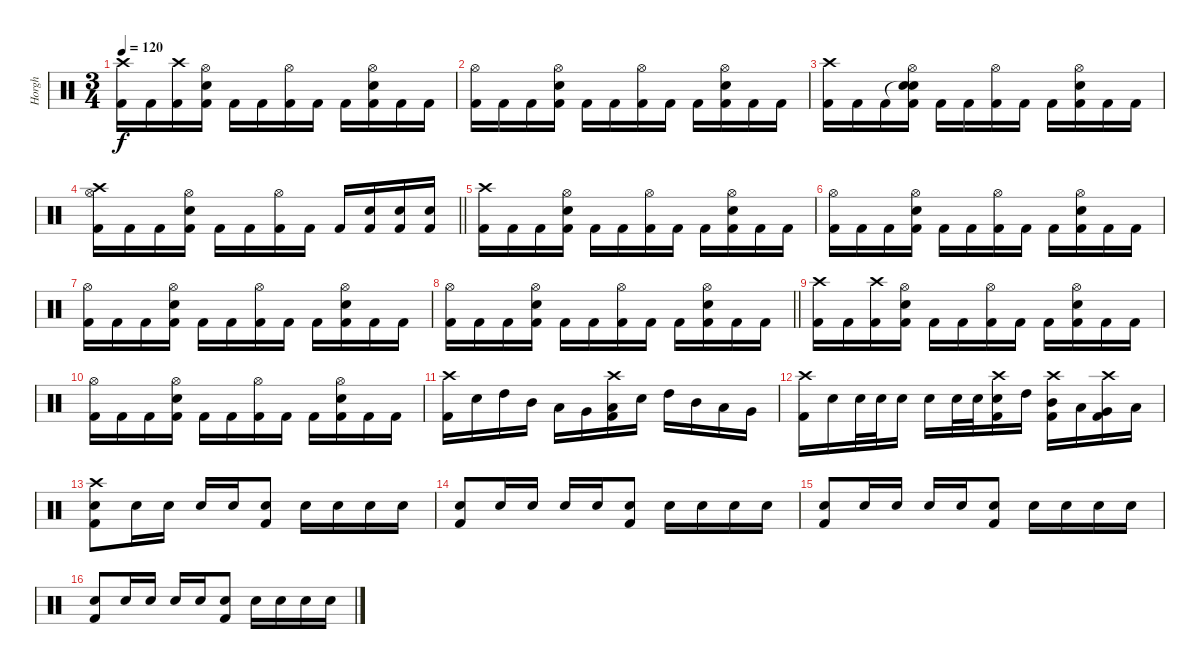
\track ("Horgh" "Horgh") {instrument percussion}
\staff {score}
\articulation defaults
\ts (3 4)
\tempo 120
\clef neutral
\ks c
("Crash high (hit)" "Kick (hit) 2").16{dy f} "Kick (hit) 2".16 ("Crash high (hit)" "Kick (hit) 2").16 ("Snare (hit) 2" "Hi-Hat (open)" "Kick (hit) 2").16 "Kick (hit) 2".16 "Kick (hit) 2".16 ("Hi-Hat (open)" "Kick (hit) 2").16 "Kick (hit) 2".16 "Kick (hit) 2".16 ("Snare (hit) 2" "Hi-Hat (open)" "Kick (hit) 2").16 "Kick (hit) 2".16 "Kick (hit) 2".16 |
("Hi-Hat (open)" "Kick (hit) 2").16 "Kick (hit) 2".16 "Kick (hit) 2".16 ("Snare (hit) 2" "Hi-Hat (open)" "Kick (hit) 2").16 "Kick (hit) 2".16 "Kick (hit) 2".16 ("Hi-Hat (open)" "Kick (hit) 2").16 "Kick (hit) 2".16 "Kick (hit) 2".16 ("Snare (hit) 2" "Hi-Hat (open)" "Kick (hit) 2").16 "Kick (hit) 2".16 "Kick (hit) 2".16 |
("Crash high (hit)" "Kick (hit) 2").16 "Kick (hit) 2".16 "Kick (hit) 2".16 ("Snare (hit)"{t} "Snare (hit) 2" "Hi-Hat (open)" "Kick (hit) 2").16 "Kick (hit) 2".16 "Kick (hit) 2".16 ("Hi-Hat (open)" "Kick (hit) 2").16 "Kick (hit) 2".16 "Kick (hit) 2".16 ("Snare (hit) 2" "Hi-Hat (open)" "Kick (hit) 2").16 "Kick (hit) 2".16 "Kick (hit) 2".16 |
\barLineRight lightlight
("Crash high (hit)" "Hi-Hat (open)" "Kick (hit) 2").16 "Kick (hit) 2".16 "Kick (hit) 2".16 ("Snare (hit) 2" "Hi-Hat (open)" "Kick (hit) 2").16 "Kick (hit) 2".16 "Kick (hit) 2".16 ("Hi-Hat (open)" "Kick (hit) 2").16 "Kick (hit) 2".16 "Kick (hit) 2".16 ("Snare (hit) 2" "Kick (hit) 2").16 ("Snare (hit) 2" "Kick (hit) 2").16 ("Snare (hit) 2" "Kick (hit) 2").16 |
("Crash high (hit)" "Kick (hit) 2").16 "Kick (hit) 2".16 "Kick (hit) 2".16 ("Snare (hit) 2" "Hi-Hat (open)" "Kick (hit) 2").16 "Kick (hit) 2".16 "Kick (hit) 2".16 ("Hi-Hat (open)" "Kick (hit) 2").16 "Kick (hit) 2".16 "Kick (hit) 2".16 ("Snare (hit) 2" "Hi-Hat (open)" "Kick (hit) 2").16 "Kick (hit) 2".16 "Kick (hit) 2".16 |
("Hi-Hat (open)" "Kick (hit) 2").16 "Kick (hit) 2".16 "Kick (hit) 2".16 ("Snare (hit) 2" "Hi-Hat (open)" "Kick (hit) 2").16 "Kick (hit) 2".16 "Kick (hit) 2".16 ("Hi-Hat (open)" "Kick (hit) 2").16 "Kick (hit) 2".16 "Kick (hit) 2".16 ("Snare (hit) 2" "Hi-Hat (open)" "Kick (hit) 2").16 "Kick (hit) 2".16 "Kick (hit) 2".16 |
("Hi-Hat (open)" "Kick (hit) 2").16 "Kick (hit) 2".16 "Kick (hit) 2".16 ("Snare (hit) 2" "Hi-Hat (open)" "Kick (hit) 2").16 "Kick (hit) 2".16 "Kick (hit) 2".16 ("Hi-Hat (open)" "Kick (hit) 2").16 "Kick (hit) 2".16 "Kick (hit) 2".16 ("Snare (hit) 2" "Hi-Hat (open)" "Kick (hit) 2").16 "Kick (hit) 2".16 "Kick (hit) 2".16 |
\barLineRight lightlight
("Hi-Hat (open)" "Kick (hit) 2").16 "Kick (hit) 2".16 "Kick (hit) 2".16 ("Snare (hit) 2" "Hi-Hat (open)" "Kick (hit) 2").16 "Kick (hit) 2".16 "Kick (hit) 2".16 ("Hi-Hat (open)" "Kick (hit) 2").16 "Kick (hit) 2".16 "Kick (hit) 2".16 ("Snare (hit) 2" "Hi-Hat (open)" "Kick (hit) 2").16 "Kick (hit) 2".16 "Kick (hit) 2".16 |
("Crash high (hit)" "Kick (hit) 2").16 "Kick (hit) 2".16 ("Crash high (hit)" "Kick (hit) 2").16 ("Snare (hit) 2" "Hi-Hat (open)" "Kick (hit) 2").16 "Kick (hit) 2".16 "Kick (hit) 2".16 ("Hi-Hat (open)" "Kick (hit) 2").16 "Kick (hit) 2".16 "Kick (hit) 2".16 ("Snare (hit) 2" "Hi-Hat (open)" "Kick (hit) 2").16 "Kick (hit) 2".16 "Kick (hit) 2".16 |
("Hi-Hat (open)" "Kick (hit) 2").16 "Kick (hit) 2".16 "Kick (hit) 2".16 ("Snare (hit) 2" "Hi-Hat (open)" "Kick (hit) 2").16 "Kick (hit) 2".16 "Kick (hit) 2".16 ("Hi-Hat (open)" "Kick (hit) 2").16 "Kick (hit) 2".16 "Kick (hit) 2".16 ("Snare (hit) 2" "Hi-Hat (open)" "Kick (hit) 2").16 "Kick (hit) 2".16 "Kick (hit) 2".16 |
("Crash high (hit)" "Kick (hit) 2").16 "Snare (hit) 2".16 "High Tom (hit)".16 "Mid Tom (hit)".16 "Low Tom (hit)".16 "Very Low Tom (hit)".16 ("Crash high (hit)" "Low Floor Tom (hit)" "Kick (hit) 2").16 "Snare (hit) 2".16 "High Tom (hit)".16 "Mid Tom (hit)".16 "Low Tom (hit)".16 "Very Low Tom (hit)".16 |
("Crash high (hit)" "Kick (hit) 2").16 "Snare (hit) 2".16 "Snare (hit) 2".32 "Snare (hit) 2".32 "Snare (hit) 2".16 "Snare (hit) 2".16 "Snare (hit) 2".32 "Snare (hit) 2".32 ("Crash high (hit)" "Snare (hit) 2" "Kick (hit) 2").16 "High Tom (hit)".16 ("Crash high (hit)" "Mid Tom (hit)" "Kick (hit) 2").16 "Low Tom (hit)".16 ("Crash high (hit)" "Very Low Tom (hit)" "Kick (hit) 2").16 "Low Floor Tom (hit)".16 |
("Crash high (hit)" "Snare (hit) 2" "Kick (hit) 2").8 "Snare (hit) 2".16 "Snare (hit) 2".16 "Snare (hit) 2".16 "Snare (hit) 2".16 ("Snare (hit) 2" "Kick (hit) 2").8 "Snare (hit) 2".16 "Snare (hit) 2".16 "Snare (hit) 2".16 "Snare (hit) 2".16 |
("Snare (hit) 2" "Kick (hit) 2").8 "Snare (hit) 2".16 "Snare (hit) 2".16 "Snare (hit) 2".16 "Snare (hit) 2".16 ("Snare (hit) 2" "Kick (hit) 2").8 "Snare (hit) 2".16 "Snare (hit) 2".16 "Snare (hit) 2".16 "Snare (hit) 2".16 |
("Snare (hit) 2" "Kick (hit) 2").8 "Snare (hit) 2".16 "Snare (hit) 2".16 "Snare (hit) 2".16 "Snare (hit) 2".16 ("Snare (hit) 2" "Kick (hit) 2").8 "Snare (hit) 2".16 "Snare (hit) 2".16 "Snare (hit) 2".16 "Snare (hit) 2".16 |
("Snare (hit) 2" "Kick (hit) 2").8 "Snare (hit) 2".16 "Snare (hit) 2".16 "Snare (hit) 2".16 "Snare (hit) 2".16 ("Snare (hit) 2" "Kick (hit) 2").8 "Snare (hit) 2".16 "Snare (hit) 2".16 "Snare (hit) 2".16 "Snare (hit) 2".16
